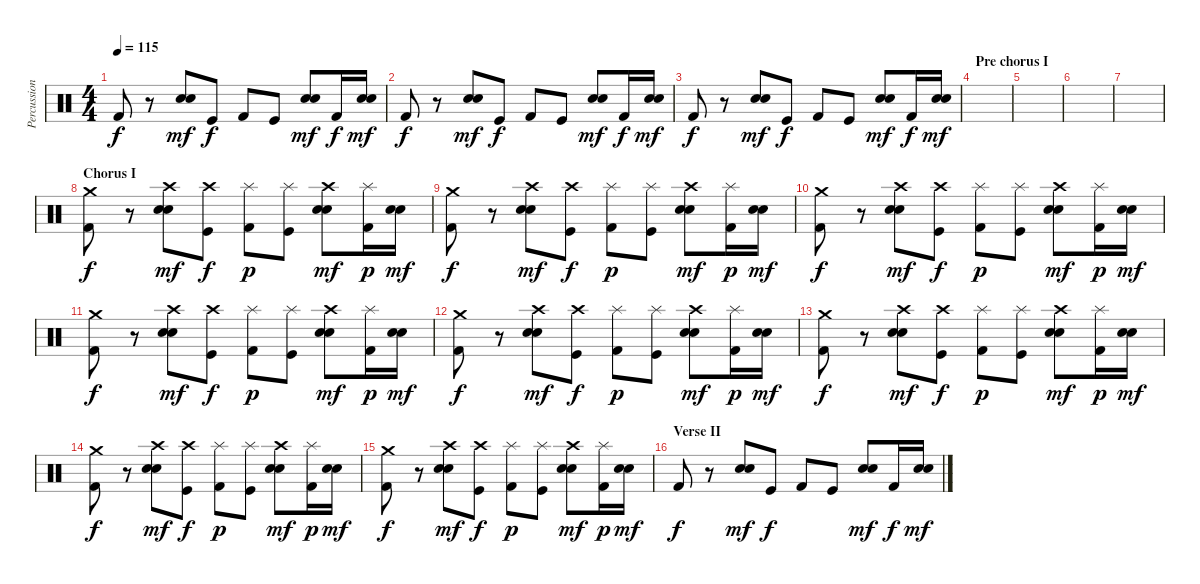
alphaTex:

\track ("Percussion - Drums" "Percussion") {instrument percussion}
\staff {score}
\articulation defaults
\ts (4 4)
\tempo 115
\clef neutral
\ks c "Kick (hit) 2".8{dy f}
r.8 ("Electric Snare (hit)" "Snare (hit) 2").8{dy mf} "Kick (hit)".8{dy f} "Kick (hit) 2".8 "Kick (hit)".8 ("Electric Snare (hit)" "Snare (hit) 2").8{dy mf} "Kick (hit) 2".16{dy f} ("Electric Snare (hit)" "Snare (hit) 2").16{dy mf} |
"Kick (hit) 2".8{dy f} r.8 ("Electric Snare (hit)" "Snare (hit) 2").8{dy mf} "Kick (hit)".8{dy f} "Kick (hit) 2".8 "Kick (hit)".8 ("Electric Snare (hit)" "Snare (hit) 2").8{dy mf} "Kick (hit) 2".16{dy f} ("Electric Snare (hit)" "Snare (hit) 2").16{dy mf} |
"Kick (hit) 2".8{dy f} r.8 ("Electric Snare (hit)" "Snare (hit) 2").8{dy mf} "Kick (hit)".8{dy f} "Kick (hit) 2".8 "Kick (hit)".8 ("Electric Snare (hit)" "Snare (hit) 2").8{dy mf} "Kick (hit) 2".16{dy f} ("Electric Snare (hit)" "Snare (hit) 2").16{dy mf} |
\section ("" "Pre chorus I")
|
|
|
|
\section ("" "Chorus I")
("Crash medium (hit)" "Kick (hit) 2").8{dy f} r.8 ("Crash high (hit)" "Electric Snare (hit)" "Snare (hit) 2").8{dy mf} ("Crash high (hit)" "Kick (hit)").8{dy f} ("Splash (hit)" "Kick (hit) 2").8{dy p} ("Splash (hit)" "Kick (hit)").8 ("Crash high (hit)" "Electric Snare (hit)" "Snare (hit) 2").8{dy mf} ("Splash (hit)" "Kick (hit) 2").16{dy p} ("Electric Snare (hit)" "Snare (hit) 2").16{dy mf} |
("Crash medium (hit)" "Kick (hit) 2").8{dy f} r.8 ("Crash high (hit)" "Electric Snare (hit)" "Snare (hit) 2").8{dy mf} ("Crash high (hit)" "Kick (hit)").8{dy f} ("Splash (hit)" "Kick (hit) 2").8{dy p} ("Splash (hit)" "Kick (hit)").8 ("Crash high (hit)" "Electric Snare (hit)" "Snare (hit) 2").8{dy mf} ("Splash (hit)" "Kick (hit) 2").16{dy p} ("Electric Snare (hit)" "Snare (hit) 2").16{dy mf} |
("Crash medium (hit)" "Kick (hit) 2").8{dy f} r.8 ("Crash high (hit)" "Electric Snare (hit)" "Snare (hit) 2").8{dy mf} ("Crash high (hit)" "Kick (hit)").8{dy f} ("Splash (hit)" "Kick (hit) 2").8{dy p} ("Splash (hit)" "Kick (hit)").8 ("Crash high (hit)" "Electric Snare (hit)" "Snare (hit) 2").8{dy mf} ("Splash (hit)" "Kick (hit) 2").16{dy p} ("Electric Snare (hit)" "Snare (hit) 2").16{dy mf} |
("Crash medium (hit)" "Kick (hit) 2").8{dy f} r.8 ("Crash high (hit)" "Electric Snare (hit)" "Snare (hit) 2").8{dy mf} ("Crash high (hit)" "Kick (hit)").8{dy f} ("Splash (hit)" "Kick (hit) 2").8{dy p} ("Splash (hit)" "Kick (hit)").8 ("Crash high (hit)" "Electric Snare (hit)" "Snare (hit) 2").8{dy mf} ("Splash (hit)" "Kick (hit) 2").16{dy p} ("Electric Snare (hit)" "Snare (hit) 2").16{dy mf} |
("Crash medium (hit)" "Kick (hit) 2").8{dy f} r.8 ("Crash high (hit)" "Electric Snare (hit)" "Snare (hit) 2").8{dy mf} ("Crash high (hit)" "Kick (hit)").8{dy f} ("Splash (hit)" "Kick (hit) 2").8{dy p} ("Splash (hit)" "Kick (hit)").8 ("Crash high (hit)" "Electric Snare (hit)" "Snare (hit) 2").8{dy mf} ("Splash (hit)" "Kick (hit) 2").16{dy p} ("Electric Snare (hit)" "Snare (hit) 2").16{dy mf} |
("Crash medium (hit)" "Kick (hit) 2").8{dy f} r.8 ("Crash high (hit)" "Electric Snare (hit)" "Snare (hit) 2").8{dy mf} ("Crash high (hit)" "Kick (hit)").8{dy f} ("Splash (hit)" "Kick (hit) 2").8{dy p} ("Splash (hit)" "Kick (hit)").8 ("Crash high (hit)" "Electric Snare (hit)" "Snare (hit) 2").8{dy mf} ("Splash (hit)" "Kick (hit) 2").16{dy p} ("Electric Snare (hit)" "Snare (hit) 2").16{dy mf} |
("Crash medium (hit)" "Kick (hit) 2").8{dy f} r.8 ("Crash high (hit)" "Electric Snare (hit)" "Snare (hit) 2").8{dy mf} ("Crash high (hit)" "Kick (hit)").8{dy f} ("Splash (hit)" "Kick (hit) 2").8{dy p} ("Splash (hit)" "Kick (hit)").8 ("Crash high (hit)" "Electric Snare (hit)" "Snare (hit) 2").8{dy mf} ("Splash (hit)" "Kick (hit) 2").16{dy p} ("Electric Snare (hit)" "Snare (hit) 2").16{dy mf} |
("Crash medium (hit)" "Kick (hit) 2").8{dy f} r.8 ("Crash high (hit)" "Electric Snare (hit)" "Snare (hit) 2").8{dy mf} ("Crash high (hit)" "Kick (hit)").8{dy f} ("Splash (hit)" "Kick (hit) 2").8{dy p} ("Splash (hit)" "Kick (hit)").8 ("Crash high (hit)" "Electric Snare (hit)" "Snare (hit) 2").8{dy mf} ("Splash (hit)" "Kick (hit) 2").16{dy p} ("Electric Snare (hit)" "Snare (hit) 2").16{dy mf} |
\section ("" "Verse II")
"Kick (hit) 2".8{dy f volume 16} r.8 ("Electric Snare (hit)" "Snare (hit) 2").8{dy mf} "Kick (hit)".8{dy f} "Kick (hit) 2".8 "Kick (hit)".8 ("Electric Snare (hit)" "Snare (hit) 2").8{dy mf} "Kick (hit) 2".16{dy f} ("Electric Snare (hit)" "Snare (hit) 2").16{dy mf}
